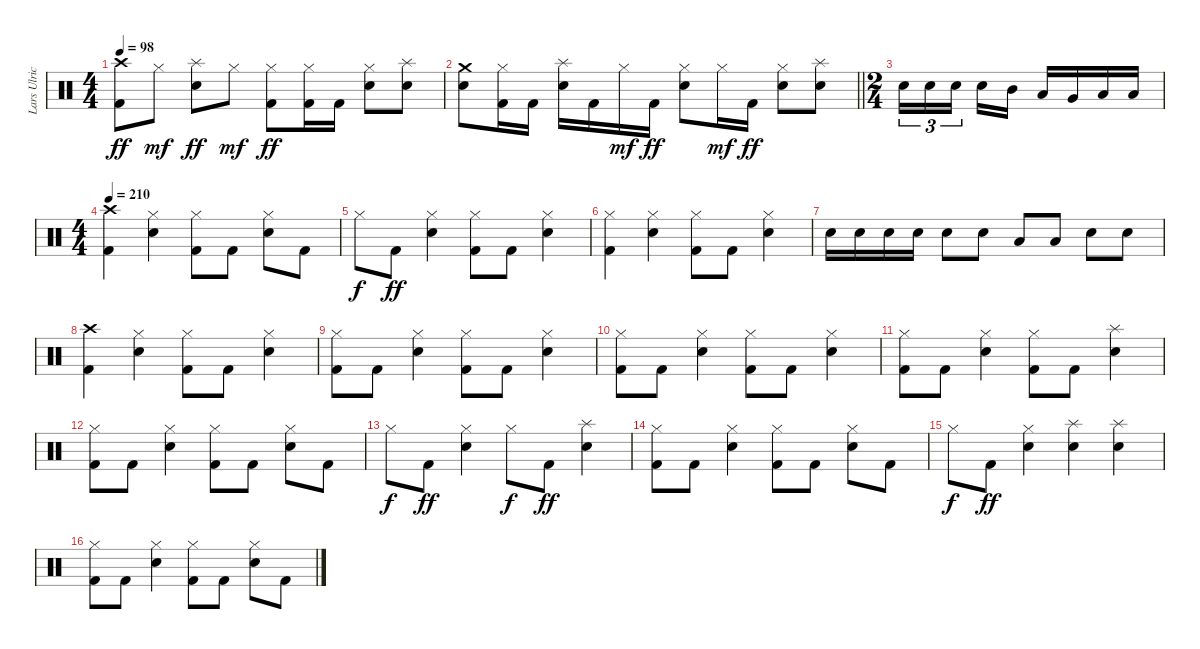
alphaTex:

\track ("Lars Ulrich" "Lars Ulric") {instrument percussion}
\staff {score}
\articulation defaults
\ts (4 4)
\tempo 98
\clef neutral
\ks c
("Crash high (hit)" "Kick (hit) 2").8{dy ff} "Hi-Hat (closed)".8{dy mf} ("Splash (hit)" "Snare (hit) 2").8{dy ff} "Hi-Hat (closed)".8{dy mf} ("Hi-Hat (closed)" "Kick (hit) 2").8{dy ff} ("Hi-Hat (closed)" "Kick (hit) 2").16 "Kick (hit) 2".16 ("Hi-Hat (closed)" "Snare (hit) 2").8 ("Splash (hit)" "Snare (hit) 2").8 |
\barLineRight lightlight
("Crash medium (hit)" "Snare (hit) 2").8 ("Hi-Hat (closed)" "Kick (hit) 2").16 "Kick (hit) 2".16 ("Splash (hit)" "Snare (hit) 2").16 "Kick (hit) 2".16 "Hi-Hat (closed)".16{dy mf} "Kick (hit) 2".16{dy ff} ("Hi-Hat (closed)" "Snare (hit) 2").8 "Hi-Hat (closed)".16{dy mf} "Kick (hit) 2".16{dy ff} ("Hi-Hat (closed)" "Snare (hit) 2").8 ("Splash (hit)" "Snare (hit) 2").8 |
\ts (2 4)
"Snare (hit) 2".16{tu (3 2)} "Snare (hit) 2".16{tu (3 2)} "Snare (hit) 2".16{tu (3 2) beam splitsecondary} "Snare (hit) 2".16 "Mid Tom (hit)".16 "Low Tom (hit)".16 "Very Low Tom (hit)".16 "Low Floor Tom (hit)".16 "Low Floor Tom (hit)".16 |
\ts (4 4)
\tempo 210
("Crash high (hit)" "Kick (hit) 2").4 ("Hi-Hat (closed)" "Snare (hit) 2").4 ("Hi-Hat (closed)" "Kick (hit) 2").8 "Kick (hit) 2".8 ("Hi-Hat (closed)" "Snare (hit) 2").8 "Kick (hit) 2".8 |
"Hi-Hat (closed)".8{dy f} "Kick (hit) 2".8{dy ff} ("Hi-Hat (closed)" "Snare (hit) 2").4 ("Hi-Hat (closed)" "Kick (hit) 2").8 "Kick (hit) 2".8 ("Hi-Hat (closed)" "Snare (hit) 2").4 |
("Hi-Hat (closed)" "Kick (hit) 2").4 ("Hi-Hat (closed)" "Snare (hit) 2").4 ("Hi-Hat (closed)" "Kick (hit) 2").8 "Kick (hit) 2".8 ("Hi-Hat (closed)" "Snare (hit) 2").4 |
"Snare (hit) 2".16 "Snare (hit) 2".16 "Snare (hit) 2".16 "Snare (hit) 2".16 "Snare (hit) 2".8 "Snare (hit) 2".8 "Low Tom (hit)".8 "Low Tom (hit)".8 "Snare (hit) 2".8 "Snare (hit) 2".8 |
("Crash high (hit)" "Kick (hit) 2").4 ("Hi-Hat (closed)" "Snare (hit) 2").4 ("Hi-Hat (closed)" "Kick (hit) 2").8 "Kick (hit) 2".8 ("Hi-Hat (closed)" "Snare (hit) 2").4 |
("Hi-Hat (closed)" "Kick (hit) 2").8 "Kick (hit) 2".8 ("Hi-Hat (closed)" "Snare (hit) 2").4 ("Hi-Hat (closed)" "Kick (hit) 2").8 "Kick (hit) 2".8 ("Hi-Hat (closed)" "Snare (hit) 2").4 |
("Hi-Hat (closed)" "Kick (hit) 2").8 "Kick (hit) 2".8 ("Hi-Hat (closed)" "Snare (hit) 2").4 ("Hi-Hat (closed)" "Kick (hit) 2").8 "Kick (hit) 2".8 ("Hi-Hat (closed)" "Snare (hit) 2").4 |
("Hi-Hat (closed)" "Kick (hit) 2").8 "Kick (hit) 2".8 ("Hi-Hat (closed)" "Snare (hit) 2").4 ("Hi-Hat (closed)" "Kick (hit) 2").8 "Kick (hit) 2".8 ("Splash (hit)" "Snare (hit) 2").4 |
("Hi-Hat (closed)" "Kick (hit) 2").8 "Kick (hit) 2".8 ("Hi-Hat (closed)" "Snare (hit) 2").4 ("Hi-Hat (closed)" "Kick (hit) 2").8 "Kick (hit) 2".8 ("Hi-Hat (closed)" "Snare (hit) 2").8 "Kick (hit) 2".8 |
"Hi-Hat (closed)".8{dy f} "Kick (hit) 2".8{dy ff} ("Hi-Hat (closed)" "Snare (hit) 2").4 "Hi-Hat (closed)".8{dy f} "Kick (hit) 2".8{dy ff} ("Splash (hit)" "Snare (hit) 2").4 |
("Hi-Hat (closed)" "Kick (hit) 2").8 "Kick (hit) 2".8 ("Hi-Hat (closed)" "Snare (hit) 2").4 ("Hi-Hat (closed)" "Kick (hit) 2").8 "Kick (hit) 2".8 ("Hi-Hat (closed)" "Snare (hit) 2").8 "Kick (hit) 2".8 |
"Hi-Hat (closed)".8{dy f} "Kick (hit) 2".8{dy ff} ("Hi-Hat (closed)" "Snare (hit) 2").4 ("Splash (hit)" "Snare (hit) 2").4 ("Splash (hit)" "Snare (hit) 2").4 |
("Hi-Hat (closed)" "Kick (hit) 2").8 "Kick (hit) 2".8 ("Hi-Hat (closed)" "Snare (hit) 2").4 ("Hi-Hat (closed)" "Kick (hit) 2").8 "Kick (hit) 2".8 ("Hi-Hat (closed)" "Snare (hit) 2").8 "Kick (hit) 2".8
